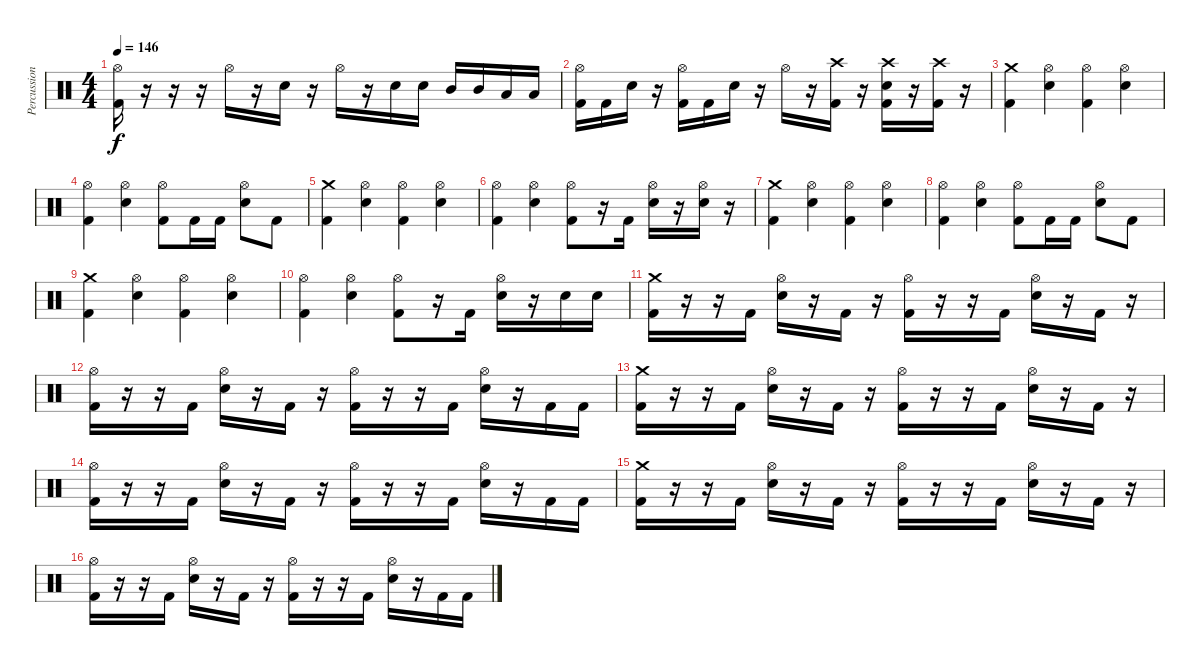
\track ("Percussion" "Percussion") {instrument percussion}
\staff {score}
\articulation defaults
\ts (4 4)
\tempo 146
\clef neutral
\ks c
("Hi-Hat (open)" "Kick (hit) 2").16{dy f} r.16 r.16 r.16 "Hi-Hat (open)".16 r.16 "Snare (hit) 2".16 r.16 "Hi-Hat (open)".16 r.16 "Snare (hit) 2".16 "Snare (hit) 2".16 "Mid Tom (hit)".16 "Mid Tom (hit)".16 "Low Tom (hit)".16 "Low Tom (hit)".16 |
("Hi-Hat (open)" "Kick (hit) 2").16 "Kick (hit) 2".16 "Snare (hit) 2".16 r.16 ("Hi-Hat (open)" "Kick (hit) 2").16 "Kick (hit) 2".16 "Snare (hit) 2".16 r.16 "Hi-Hat (open)".16 r.16 ("Crash high (hit)" "Kick (hit) 2").16 r.16 ("Crash high (hit)" "Snare (hit) 2" "Kick (hit) 2").16 r.16 ("Crash high (hit)" "Kick (hit) 2").16 r.16 |
("Crash medium (hit)" "Kick (hit) 2").4 ("Hi-Hat (open)" "Snare (hit) 2").4 ("Hi-Hat (open)" "Kick (hit) 2").4 ("Hi-Hat (open)" "Snare (hit) 2").4 |
("Hi-Hat (open)" "Kick (hit) 2").4 ("Hi-Hat (open)" "Snare (hit) 2").4 ("Hi-Hat (open)" "Kick (hit) 2").8 "Kick (hit) 2".16 "Kick (hit) 2".16 ("Hi-Hat (open)" "Snare (hit) 2").8 "Kick (hit) 2".8 |
("Crash medium (hit)" "Kick (hit) 2").4 ("Hi-Hat (open)" "Snare (hit) 2").4 ("Hi-Hat (open)" "Kick (hit) 2").4 ("Hi-Hat (open)" "Snare (hit) 2").4 |
("Hi-Hat (open)" "Kick (hit) 2").4 ("Hi-Hat (open)" "Snare (hit) 2").4 ("Hi-Hat (open)" "Kick (hit) 2").8 r.16 "Kick (hit) 2".16 ("Hi-Hat (open)" "Snare (hit) 2").16 r.16 ("Hi-Hat (open)" "Snare (hit) 2").16 r.16 |
("Crash medium (hit)" "Kick (hit) 2").4 ("Hi-Hat (open)" "Snare (hit) 2").4 ("Hi-Hat (open)" "Kick (hit) 2").4 ("Hi-Hat (open)" "Snare (hit) 2").4 |
("Hi-Hat (open)" "Kick (hit) 2").4 ("Hi-Hat (open)" "Snare (hit) 2").4 ("Hi-Hat (open)" "Kick (hit) 2").8 "Kick (hit) 2".16 "Kick (hit) 2".16 ("Hi-Hat (open)" "Snare (hit) 2").8 "Kick (hit) 2".8 |
("Crash medium (hit)" "Kick (hit) 2").4 ("Hi-Hat (open)" "Snare (hit) 2").4 ("Hi-Hat (open)" "Kick (hit) 2").4 ("Hi-Hat (open)" "Snare (hit) 2").4 |
("Hi-Hat (open)" "Kick (hit) 2").4 ("Hi-Hat (open)" "Snare (hit) 2").4 ("Hi-Hat (open)" "Kick (hit) 2").8 r.16 "Kick (hit) 2".16 ("Hi-Hat (open)" "Snare (hit) 2").16 r.16 "Snare (hit) 2".16 "Snare (hit) 2".16 |
("Crash medium (hit)" "Kick (hit) 2").16 r.16 r.16 "Kick (hit) 2".16 ("Hi-Hat (open)" "Snare (hit) 2").16 r.16 "Kick (hit) 2".16 r.16 ("Hi-Hat (open)" "Kick (hit) 2").16 r.16 r.16 "Kick (hit) 2".16 ("Hi-Hat (open)" "Snare (hit) 2").16 r.16 "Kick (hit) 2".16 r.16 |
("Hi-Hat (open)" "Kick (hit) 2").16 r.16 r.16 "Kick (hit) 2".16 ("Hi-Hat (open)" "Snare (hit) 2").16 r.16 "Kick (hit) 2".16 r.16 ("Hi-Hat (open)" "Kick (hit) 2").16 r.16 r.16 "Kick (hit) 2".16 ("Hi-Hat (open)" "Snare (hit) 2").16 r.16 "Kick (hit) 2".16 "Kick (hit) 2".16 |
("Crash medium (hit)" "Kick (hit) 2").16 r.16 r.16 "Kick (hit) 2".16 ("Hi-Hat (open)" "Snare (hit) 2").16 r.16 "Kick (hit) 2".16 r.16 ("Hi-Hat (open)" "Kick (hit) 2").16 r.16 r.16 "Kick (hit) 2".16 ("Hi-Hat (open)" "Snare (hit) 2").16 r.16 "Kick (hit) 2".16 r.16 |
("Hi-Hat (open)" "Kick (hit) 2").16 r.16 r.16 "Kick (hit) 2".16 ("Hi-Hat (open)" "Snare (hit) 2").16 r.16 "Kick (hit) 2".16 r.16 ("Hi-Hat (open)" "Kick (hit) 2").16 r.16 r.16 "Kick (hit) 2".16 ("Hi-Hat (open)" "Snare (hit) 2").16 r.16 "Kick (hit) 2".16 "Kick (hit) 2".16 |
("Crash medium (hit)" "Kick (hit) 2").16 r.16 r.16 "Kick (hit) 2".16 ("Hi-Hat (open)" "Snare (hit) 2").16 r.16 "Kick (hit) 2".16 r.16 ("Hi-Hat (open)" "Kick (hit) 2").16 r.16 r.16 "Kick (hit) 2".16 ("Hi-Hat (open)" "Snare (hit) 2").16 r.16 "Kick (hit) 2".16 r.16 |
("Hi-Hat (open)" "Kick (hit) 2").16 r.16 r.16 "Kick (hit) 2".16 ("Hi-Hat (open)" "Snare (hit) 2").16 r.16 "Kick (hit) 2".16 r.16 ("Hi-Hat (open)" "Kick (hit) 2").16 r.16 r.16 "Kick (hit) 2".16 ("Hi-Hat (open)" "Snare (hit) 2").16 r.16 "Kick (hit) 2".16 "Kick (hit) 2".16
